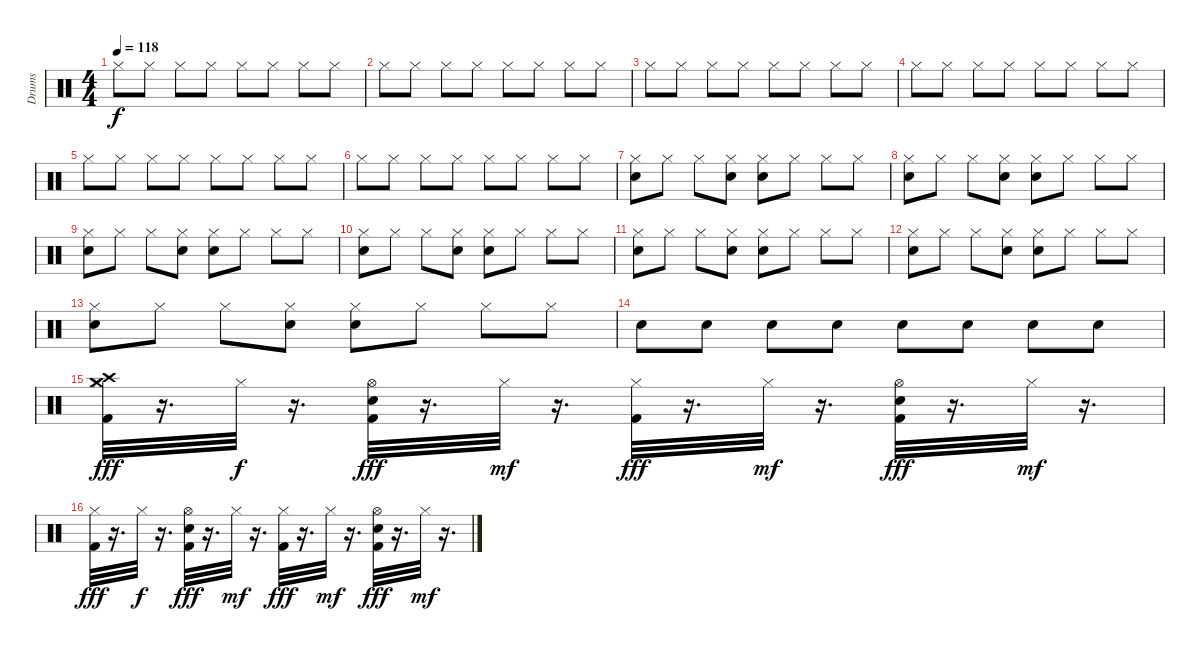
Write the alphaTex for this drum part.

\track ("Drums" "Drums") {instrument percussion}
\staff {score}
\articulation defaults
\ts (4 4)
\tempo 118
\clef neutral
\ks c "Hi-Hat (closed)".8{dy f} "Hi-Hat (closed)".8 "Hi-Hat (closed)".8 "Hi-Hat (closed)".8 "Hi-Hat (closed)".8 "Hi-Hat (closed)".8 "Hi-Hat (closed)".8 "Hi-Hat (closed)".8
|
"Hi-Hat (closed)".8 "Hi-Hat (closed)".8 "Hi-Hat (closed)".8 "Hi-Hat (closed)".8 "Hi-Hat (closed)".8 "Hi-Hat (closed)".8 "Hi-Hat (closed)".8 "Hi-Hat (closed)".8 |
"Hi-Hat (closed)".8 "Hi-Hat (closed)".8 "Hi-Hat (closed)".8 "Hi-Hat (closed)".8 "Hi-Hat (closed)".8 "Hi-Hat (closed)".8 "Hi-Hat (closed)".8 "Hi-Hat (closed)".8 |
"Hi-Hat (closed)".8 "Hi-Hat (closed)".8 "Hi-Hat (closed)".8 "Hi-Hat (closed)".8 "Hi-Hat (closed)".8 "Hi-Hat (closed)".8 "Hi-Hat (closed)".8 "Hi-Hat (closed)".8 |
"Hi-Hat (closed)".8 "Hi-Hat (closed)".8 "Hi-Hat (closed)".8 "Hi-Hat (closed)".8 "Hi-Hat (closed)".8 "Hi-Hat (closed)".8 "Hi-Hat (closed)".8 "Hi-Hat (closed)".8 |
"Hi-Hat (closed)".8 "Hi-Hat (closed)".8 "Hi-Hat (closed)".8 "Hi-Hat (closed)".8 "Hi-Hat (closed)".8 "Hi-Hat (closed)".8 "Hi-Hat (closed)".8 "Hi-Hat (closed)".8 |
("Hi-Hat (closed)" "Electric Snare (hit)").8 "Hi-Hat (closed)".8 "Hi-Hat (closed)".8 ("Hi-Hat (closed)" "Electric Snare (hit)").8 ("Hi-Hat (closed)" "Electric Snare (hit)").8 "Hi-Hat (closed)".8 "Hi-Hat (closed)".8 "Hi-Hat (closed)".8 |
("Hi-Hat (closed)" "Electric Snare (hit)").8 "Hi-Hat (closed)".8 "Hi-Hat (closed)".8 ("Hi-Hat (closed)" "Electric Snare (hit)").8 ("Hi-Hat (closed)" "Electric Snare (hit)").8 "Hi-Hat (closed)".8 "Hi-Hat (closed)".8 "Hi-Hat (closed)".8 |
("Hi-Hat (closed)" "Electric Snare (hit)").8 "Hi-Hat (closed)".8 "Hi-Hat (closed)".8 ("Hi-Hat (closed)" "Electric Snare (hit)").8 ("Hi-Hat (closed)" "Electric Snare (hit)").8 "Hi-Hat (closed)".8 "Hi-Hat (closed)".8 "Hi-Hat (closed)".8 |
("Hi-Hat (closed)" "Electric Snare (hit)").8 "Hi-Hat (closed)".8 "Hi-Hat (closed)".8 ("Hi-Hat (closed)" "Electric Snare (hit)").8 ("Hi-Hat (closed)" "Electric Snare (hit)").8 "Hi-Hat (closed)".8 "Hi-Hat (closed)".8 "Hi-Hat (closed)".8 |
("Hi-Hat (closed)" "Electric Snare (hit)").8 "Hi-Hat (closed)".8 "Hi-Hat (closed)".8 ("Hi-Hat (closed)" "Electric Snare (hit)").8 ("Hi-Hat (closed)" "Electric Snare (hit)").8 "Hi-Hat (closed)".8 "Hi-Hat (closed)".8 "Hi-Hat (closed)".8 |
("Hi-Hat (closed)" "Electric Snare (hit)").8 "Hi-Hat (closed)".8 "Hi-Hat (closed)".8 ("Hi-Hat (closed)" "Electric Snare (hit)").8 ("Hi-Hat (closed)" "Electric Snare (hit)").8 "Hi-Hat (closed)".8 "Hi-Hat (closed)".8 "Hi-Hat (closed)".8 |
("Hi-Hat (closed)" "Electric Snare (hit)").8 "Hi-Hat (closed)".8 "Hi-Hat (closed)".8 ("Hi-Hat (closed)" "Electric Snare (hit)").8 ("Hi-Hat (closed)" "Electric Snare (hit)").8 "Hi-Hat (closed)".8 "Hi-Hat (closed)".8 "Hi-Hat (closed)".8 |
"Electric Snare (hit)".8 "Electric Snare (hit)".8 "Electric Snare (hit)".8 "Electric Snare (hit)".8 "Electric Snare (hit)".8 "Electric Snare (hit)".8 "Electric Snare (hit)".8 "Electric Snare (hit)".8 |
("Hi-Hat (closed)" "Crash medium (hit)" "Kick (hit) 2" "Crash high (hit)").32{dy fff} r.16{d} "Hi-Hat (closed)".32{dy f} r.16{d} ("Hi-Hat (open)" "Kick (hit) 2" "Electric Snare (hit)").32{dy fff} r.16{d} "Hi-Hat (closed)".32{dy mf} r.16{d} ("Hi-Hat (closed)" "Kick (hit) 2").32{dy fff} r.16{d} "Hi-Hat (closed)".32{dy mf} r.16{d} ("Hi-Hat (open)" "Kick (hit) 2" "Electric Snare (hit)").32{dy fff} r.16{d} "Hi-Hat (closed)".32{dy mf} r.16{d} |
("Hi-Hat (closed)" "Kick (hit) 2").32{dy fff} r.16{d} "Hi-Hat (closed)".32{dy f} r.16{d} ("Hi-Hat (open)" "Kick (hit) 2" "Electric Snare (hit)").32{dy fff} r.16{d} "Hi-Hat (closed)".32{dy mf} r.16{d} ("Hi-Hat (closed)" "Kick (hit) 2").32{dy fff} r.16{d} "Hi-Hat (closed)".32{dy mf} r.16{d} ("Hi-Hat (open)" "Kick (hit) 2" "Electric Snare (hit)").32{dy fff} r.16{d} "Hi-Hat (closed)".32{dy mf} r.16{d}
